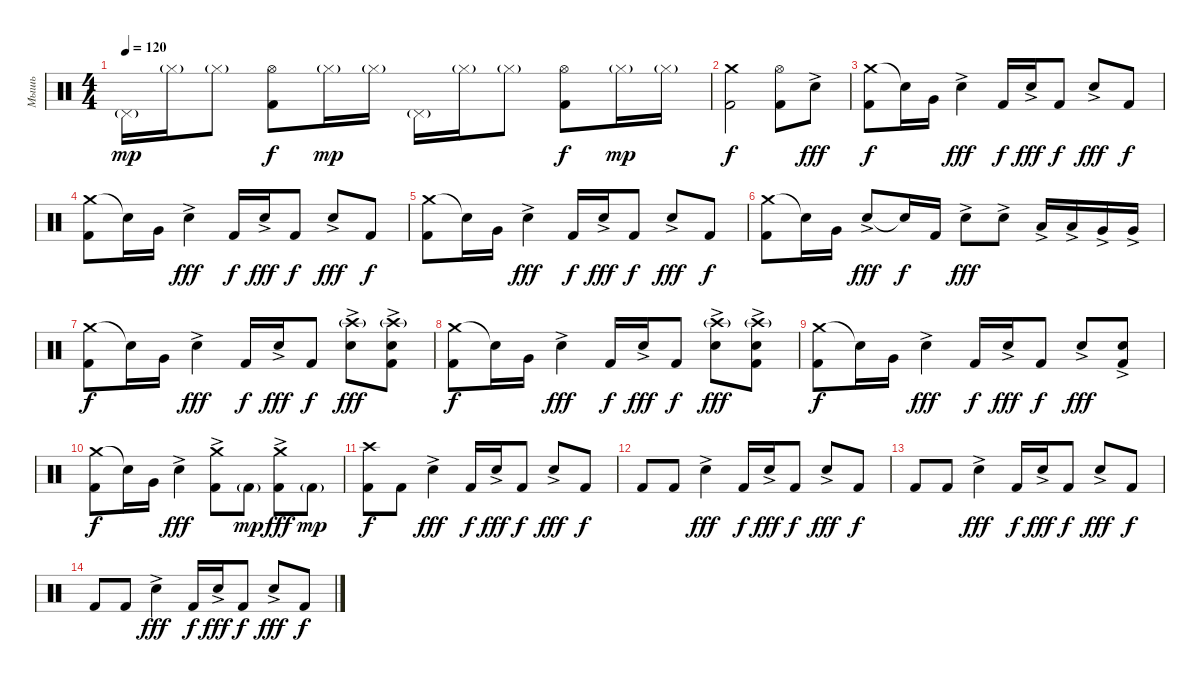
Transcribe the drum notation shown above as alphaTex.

\track ("Мышь" "Мышь") {instrument percussion}
\staff {score}
\articulation defaults
\ts (4 4)
\tempo 120
\clef neutral
\ks c "Pedal Hi-Hat (hit)"{g}.16{dy mp} "Hi-Hat (closed)"{g}.16 "Hi-Hat (closed)"{g}.8
("Hi-Hat (open)" "Kick (hit) 2").8{dy f} "Hi-Hat (closed)"{g}.16{dy mp} "Hi-Hat (closed)"{g}.16 "Pedal Hi-Hat (hit)"{g}.16 "Hi-Hat (closed)"{g}.16 "Hi-Hat (closed)"{g}.8 ("Hi-Hat (open)" "Kick (hit) 2").8{dy f} "Hi-Hat (closed)"{g}.16{dy mp} "Hi-Hat (closed)"{g}.16 |
("Crash medium (hit)" "Kick (hit) 2").2{dy f} ("Hi-Hat (open)" "Kick (hit) 2").8 "Electric Snare (hit)"{ac}.8{dy fff} |
("Crash medium (hit)" "Kick (hit) 2").8{dy f} "Snare (hit)"{t}.16 "Very Low Tom (hit)".16 "Electric Snare (hit)"{ac}.4{dy fff} "Kick (hit) 2".16{dy f} "Electric Snare (hit)"{ac}.16{dy fff} "Kick (hit) 2".8{dy f} "Electric Snare (hit)"{ac}.8{dy fff} "Kick (hit) 2".8{dy f} |
("Crash medium (hit)" "Kick (hit) 2").8 "Snare (hit)"{t}.16 "Very Low Tom (hit)".16 "Electric Snare (hit)"{ac}.4{dy fff} "Kick (hit) 2".16{dy f} "Electric Snare (hit)"{ac}.16{dy fff} "Kick (hit) 2".8{dy f} "Electric Snare (hit)"{ac}.8{dy fff} "Kick (hit) 2".8{dy f} |
("Crash medium (hit)" "Kick (hit) 2").8 "Snare (hit)"{t}.16 "Very Low Tom (hit)".16 "Electric Snare (hit)"{ac}.4{dy fff} "Kick (hit) 2".16{dy f} "Electric Snare (hit)"{ac}.16{dy fff} "Kick (hit) 2".8{dy f} "Electric Snare (hit)"{ac}.8{dy fff} "Kick (hit) 2".8{dy f} |
("Crash medium (hit)" "Kick (hit) 2").8 "Snare (hit)"{t}.16 "Very Low Tom (hit)".16 "Electric Snare (hit)"{ac}.8{dy fff} "Snare (hit)"{t}.16{dy f} "Kick (hit) 2".16 "Electric Snare (hit)"{ac}.8{dy fff} "Electric Snare (hit)"{ac}.8 "Low Tom (hit)"{ac}.16 "Low Tom (hit)"{ac}.16 "Very Low Tom (hit)"{ac}.16 "Very Low Tom (hit)"{ac}.16 |
("Crash medium (hit)" "Kick (hit) 2").8{dy f} "Snare (hit)"{t}.16 "Very Low Tom (hit)".16 "Electric Snare (hit)"{ac}.4{dy fff} "Kick (hit) 2".16{dy f} "Electric Snare (hit)"{ac}.16{dy fff} "Kick (hit) 2".8{dy f} ("Crash high (hit)"{g} "Electric Snare (hit)"{ac}).8{dy fff} ("Crash high (hit)"{g} "Electric Snare (hit)"{ac} "Kick (hit) 2").8 |
("Crash medium (hit)" "Kick (hit) 2").8{dy f} "Snare (hit)"{t}.16 "Very Low Tom (hit)".16 "Electric Snare (hit)"{ac}.4{dy fff} "Kick (hit) 2".16{dy f} "Electric Snare (hit)"{ac}.16{dy fff} "Kick (hit) 2".8{dy f} ("Crash high (hit)"{g} "Electric Snare (hit)"{ac}).8{dy fff} ("Crash high (hit)"{g} "Electric Snare (hit)"{ac} "Kick (hit) 2").8 |
("Crash medium (hit)" "Kick (hit) 2").8{dy f} "Snare (hit)"{t}.16 "Very Low Tom (hit)".16 "Electric Snare (hit)"{ac}.4{dy fff} "Kick (hit) 2".16{dy f} "Electric Snare (hit)"{ac}.16{dy fff} "Kick (hit) 2".8{dy f} "Electric Snare (hit)"{ac}.8{dy fff} ("Electric Snare (hit)"{ac} "Kick (hit) 2").8 |
("Crash medium (hit)" "Kick (hit) 2").8{dy f} "Snare (hit)"{t}.16 "Very Low Tom (hit)".16 "Electric Snare (hit)"{ac}.4{dy fff} ("Crash medium (hit)" "Kick (hit) 2"{ac}).8 "Kick (hit) 2"{g}.8{dy mp} ("Crash medium (hit)" "Kick (hit) 2"{ac}).8{dy fff} "Kick (hit) 2"{g}.8{dy mp} |
("Crash high (hit)" "Kick (hit) 2").8{dy f} "Kick (hit) 2".8 "Electric Snare (hit)"{ac}.4{dy fff} "Kick (hit) 2".16{dy f} "Electric Snare (hit)"{ac}.16{dy fff} "Kick (hit) 2".8{dy f} "Electric Snare (hit)"{ac}.8{dy fff} "Kick (hit) 2".8{dy f} |
"Kick (hit) 2".8 "Kick (hit) 2".8 "Electric Snare (hit)"{ac}.4{dy fff} "Kick (hit) 2".16{dy f} "Electric Snare (hit)"{ac}.16{dy fff} "Kick (hit) 2".8{dy f} "Electric Snare (hit)"{ac}.8{dy fff} "Kick (hit) 2".8{dy f} |
"Kick (hit) 2".8 "Kick (hit) 2".8 "Electric Snare (hit)"{ac}.4{dy fff} "Kick (hit) 2".16{dy f} "Electric Snare (hit)"{ac}.16{dy fff} "Kick (hit) 2".8{dy f} "Electric Snare (hit)"{ac}.8{dy fff} "Kick (hit) 2".8{dy f} |
"Kick (hit) 2".8 "Kick (hit) 2".8 "Electric Snare (hit)"{ac}.4{dy fff} "Kick (hit) 2".16{dy f} "Electric Snare (hit)"{ac}.16{dy fff} "Kick (hit) 2".8{dy f} "Electric Snare (hit)"{ac}.8{dy fff} "Kick (hit) 2".8{dy f}
